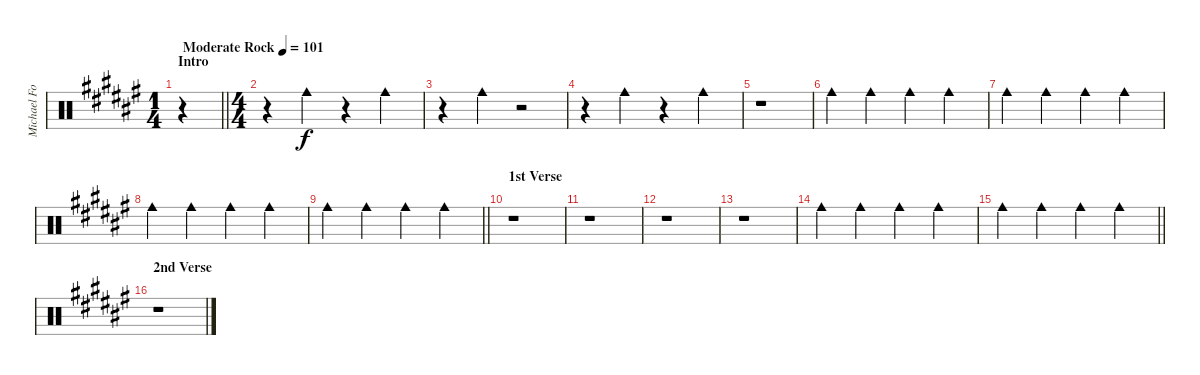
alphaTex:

\track ("Michael Foster" "Michael Fo") {instrument percussion}
\staff {score}
\articulation defaults
\ts (1 4)
\section ("" "Intro")
\tempo (101 "Moderate Rock")
\clef neutral
\barLineRight lightlight
\ks f#
r.4{dy f} |
\ts (4 4)
r.4 "Cowbell medium (hit)".4 r.4 "Cowbell medium (hit)".4 |
r.4 "Cowbell medium (hit)".4 r.2 |
r.4 "Cowbell medium (hit)".4 r.4 "Cowbell medium (hit)".4 |
r.1 |
"Cowbell medium (hit)".4 "Cowbell medium (hit)".4 "Cowbell medium (hit)".4 "Cowbell medium (hit)".4 |
"Cowbell medium (hit)".4 "Cowbell medium (hit)".4 "Cowbell medium (hit)".4 "Cowbell medium (hit)".4 |
"Cowbell medium (hit)".4 "Cowbell medium (hit)".4 "Cowbell medium (hit)".4 "Cowbell medium (hit)".4 |
\barLineRight lightlight "Cowbell medium (hit)".4 "Cowbell medium (hit)".4 "Cowbell medium (hit)".4 "Cowbell medium (hit)".4
|
\section ("" "1st Verse")
r.1 |
r.1 |
r.1 |
r.1 |
"Cowbell medium (hit)".4 "Cowbell medium (hit)".4 "Cowbell medium (hit)".4 "Cowbell medium (hit)".4 |
\barLineRight lightlight "Cowbell medium (hit)".4 "Cowbell medium (hit)".4 "Cowbell medium (hit)".4 "Cowbell medium (hit)".4
|
\section ("" "2nd Verse")
r.1
